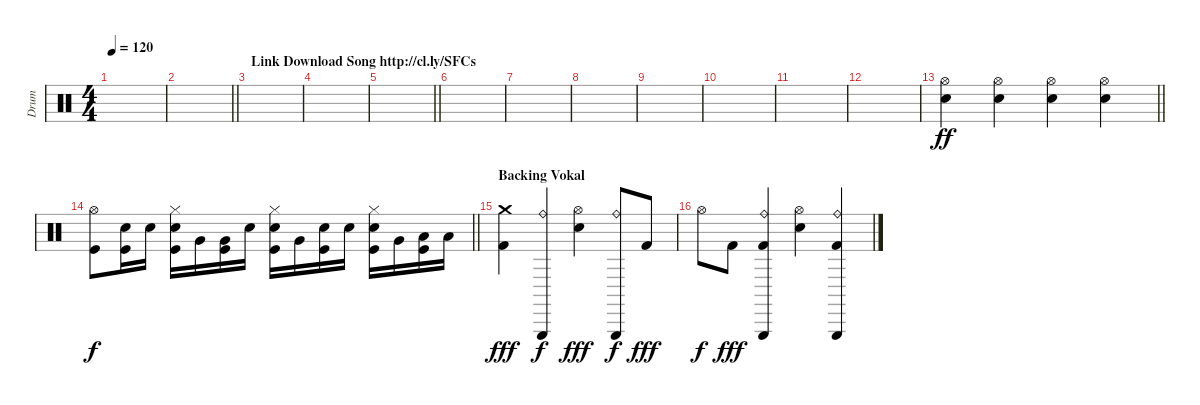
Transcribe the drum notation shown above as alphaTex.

\track ("Drum" "Drum") {instrument percussion}
\staff {score}
\articulation defaults
\ts (4 4)
\tempo 120
\clef neutral
\ks c
|
\barLineRight lightlight
|
\section ("" "Link Download Song http://cl.ly/SFCs")
|
|
\barLineRight lightlight
|
|
|
|
|
|
|
|
\barLineRight lightlight
("Electric Snare (hit)" "Hi-Hat (open)").4{dy ff} ("Electric Snare (hit)" "Hi-Hat (open)").4 ("Electric Snare (hit)" "Hi-Hat (open)").4 ("Electric Snare (hit)" "Hi-Hat (open)").4 |
\barLineRight lightlight
("Kick (hit)" "Hi-Hat (open)").8{dy f} ("Kick (hit)" "Snare (hit) 2").16 "Snare (hit) 2".16 ("Kick (hit)" "Snare (hit) 2" "Hi-Hat (closed)").16 "Very Low Tom (hit)".16 ("Very Low Tom (hit)" "Kick (hit)").16 "Snare (hit) 2".16 ("Kick (hit)" "Snare (hit) 2" "Hi-Hat (closed)").16 "Very Low Tom (hit)".16 ("Snare (hit) 2" "Kick (hit)").16 "Snare (hit) 2".16 ("Kick (hit)" "Snare (hit) 2" "Hi-Hat (closed)").16 "Very Low Tom (hit)".16 ("Kick (hit)" "Low Floor Tom (hit)").16 "Low Floor Tom (hit)".16 |
\section ("" "Backing Vokal")
("Kick (hit) 2" "Crash medium (hit)").4{dy fff} ("Ride (bell)" "Triangle (hit)").4{dy f} ("Electric Snare (hit)" "Hi-Hat (open)").4{dy fff} ("Ride (bell)" "Triangle (hit)").8{dy f} "Kick (hit) 2".8{dy fff} |
"Hi-Hat (open)".8{dy f} "Kick (hit) 2".8{dy fff} ("Kick (hit) 2" "Ride (bell)" "Triangle (hit)").4 ("Electric Snare (hit)" "Hi-Hat (open)").4 ("Kick (hit) 2" "Ride (bell)" "Triangle (hit)").4
